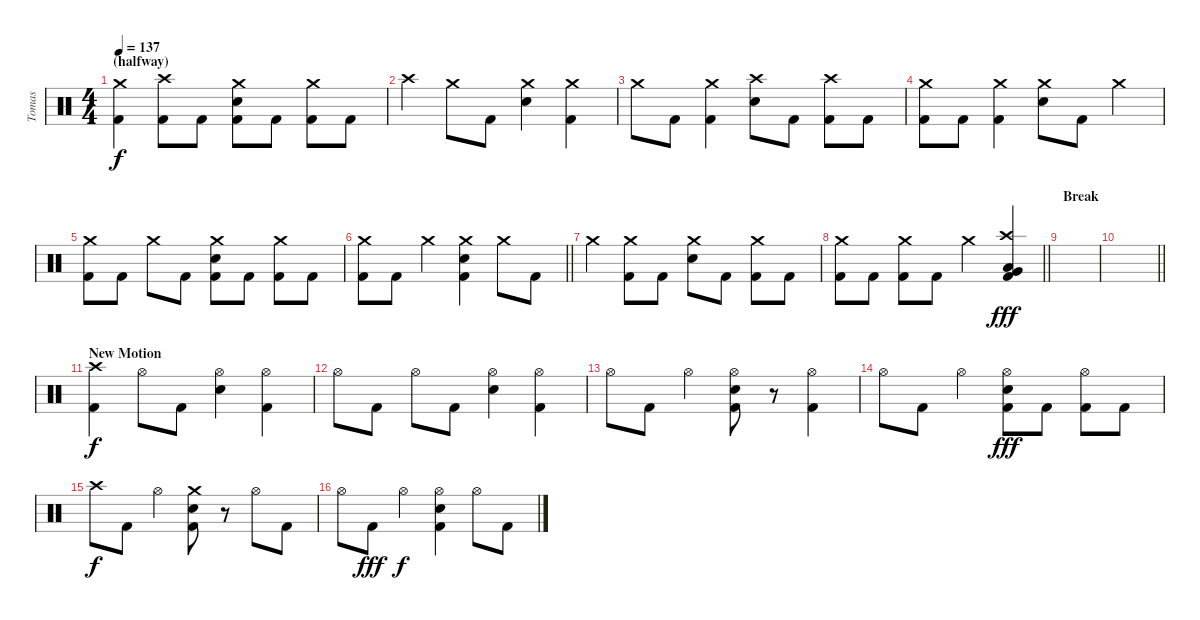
\track ("Tomas" "Tomas") {instrument percussion}
\staff {score}
\articulation defaults
\ts (4 4)
\section ("" "(halfway)")
\tempo 137
\clef neutral
\ks c
("Crash medium (hit)" "Kick (hit) 2").4{dy f} ("Crash high (hit)" "Kick (hit) 2").8 "Kick (hit) 2".8 ("Crash medium (hit)" "Electric Snare (hit)" "Kick (hit) 2").8 "Kick (hit) 2".8 ("Crash medium (hit)" "Kick (hit) 2").8 "Kick (hit) 2".8 |
"Crash high (hit)".4 "Crash medium (hit)".8 "Kick (hit) 2".8 ("Crash medium (hit)" "Electric Snare (hit)").4 ("Crash medium (hit)" "Kick (hit) 2").4 |
"Crash medium (hit)".8 "Kick (hit) 2".8 ("Crash medium (hit)" "Kick (hit) 2").4 ("Crash high (hit)" "Electric Snare (hit)").8 "Kick (hit) 2".8 ("Crash high (hit)" "Kick (hit) 2").8 "Kick (hit) 2".8 |
("Crash medium (hit)" "Kick (hit) 2").8 "Kick (hit) 2".8 ("Crash medium (hit)" "Kick (hit) 2").4 ("Crash medium (hit)" "Electric Snare (hit)").8 "Kick (hit) 2".8 "Crash medium (hit)".4 |
("Crash medium (hit)" "Kick (hit) 2").8 "Kick (hit) 2".8 "Crash medium (hit)".8 "Kick (hit) 2".8 ("Crash medium (hit)" "Electric Snare (hit)" "Kick (hit) 2").8 "Kick (hit) 2".8 ("Crash medium (hit)" "Kick (hit) 2").8 "Kick (hit) 2".8 |
\barLineRight lightlight
("Crash medium (hit)" "Kick (hit) 2").8 "Kick (hit) 2".8 "Crash medium (hit)".4 ("Crash medium (hit)" "Electric Snare (hit)" "Kick (hit) 2").4 "Crash medium (hit)".8 "Kick (hit) 2".8 |
"Crash medium (hit)".4 ("Crash medium (hit)" "Kick (hit) 2").8 "Kick (hit) 2".8 ("Crash medium (hit)" "Electric Snare (hit)").8 "Kick (hit) 2".8 ("Crash medium (hit)" "Kick (hit) 2").8 "Kick (hit) 2".8 |
\barLineRight lightlight
("Crash medium (hit)" "Kick (hit) 2").8 "Kick (hit) 2".8 ("Crash medium (hit)" "Kick (hit) 2").8 "Kick (hit) 2".8 "Crash medium (hit)".4 ("Crash high (hit)" "Low Tom (hit)" "Very Low Tom (hit)" "Kick (hit) 2").4{dy fff} |
\section ("" "Break")
|
\barLineRight lightlight
|
\section ("" "New Motion")
("Crash high (hit)" "Kick (hit) 2").4{dy f} "Hi-Hat (open)".8 "Kick (hit) 2".8 ("Hi-Hat (open)" "Electric Snare (hit)").4 ("Hi-Hat (open)" "Kick (hit) 2").4 |
"Hi-Hat (open)".8 "Kick (hit) 2".8 "Hi-Hat (open)".8 "Kick (hit) 2".8 ("Hi-Hat (open)" "Electric Snare (hit)").4 ("Hi-Hat (open)" "Kick (hit) 2").4 |
"Hi-Hat (open)".8 "Kick (hit) 2".8 "Hi-Hat (open)".4 ("Hi-Hat (open)" "Electric Snare (hit)" "Kick (hit) 2").8 r.8 ("Hi-Hat (open)" "Kick (hit) 2").4 |
"Hi-Hat (open)".8 "Kick (hit) 2".8 "Hi-Hat (open)".4 ("Hi-Hat (open)" "Electric Snare (hit)" "Kick (hit) 2").8{dy fff} "Kick (hit) 2".8 ("Hi-Hat (open)" "Kick (hit) 2").8 "Kick (hit) 2".8 |
"Crash high (hit)".8{dy f} "Kick (hit) 2".8 "Hi-Hat (open)".4 ("Crash medium (hit)" "Electric Snare (hit)" "Kick (hit) 2").8 r.8 "Hi-Hat (open)".8 "Kick (hit) 2".8 |
"Hi-Hat (open)".8 "Kick (hit) 2".8{dy fff} "Hi-Hat (open)".4{dy f} ("Hi-Hat (open)" "Electric Snare (hit)" "Kick (hit) 2").4 "Hi-Hat (open)".8 "Kick (hit) 2".8
